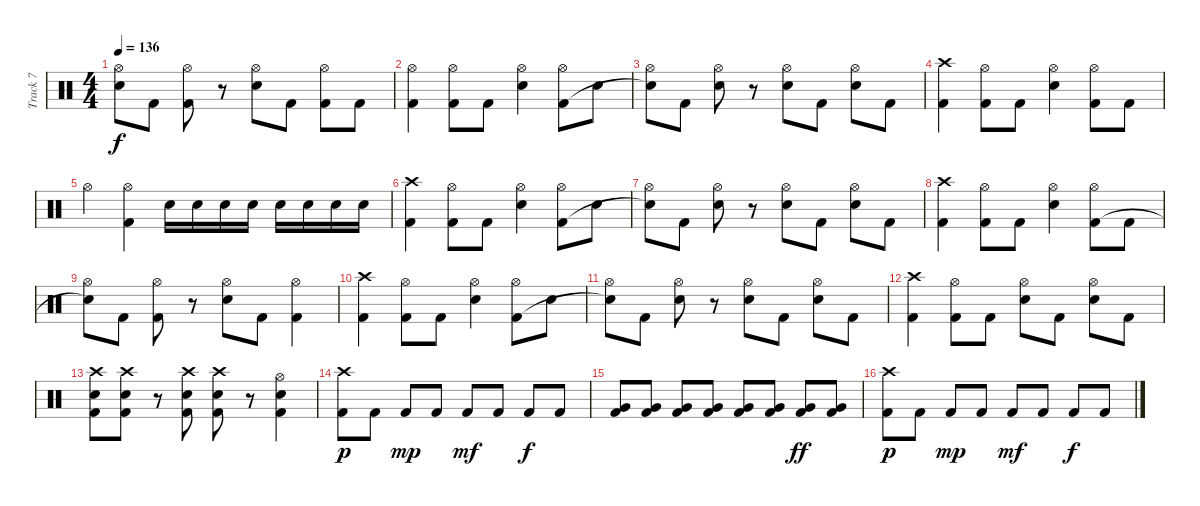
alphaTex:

\track ("Track 7" "Track 7") {instrument percussion}
\staff {score}
\articulation defaults
\ts (4 4)
\tempo 136
\clef neutral
\ks c
("Hi-Hat (open)" "Electric Snare (hit)"{t}).8{dy f} "Kick (hit) 2".8 ("Hi-Hat (open)" "Kick (hit) 2").8 r.8 ("Hi-Hat (open)" "Electric Snare (hit)").8 "Kick (hit) 2".8 ("Hi-Hat (open)" "Kick (hit) 2").8 "Kick (hit) 2".8 |
("Hi-Hat (open)" "Kick (hit) 2").4 ("Hi-Hat (open)" "Kick (hit) 2").8 "Kick (hit) 2".8 ("Hi-Hat (open)" "Electric Snare (hit)").4 ("Hi-Hat (open)" "Kick (hit) 2").8 "Electric Snare (hit)".8 |
("Hi-Hat (open)" "Electric Snare (hit)"{t}).8 "Kick (hit) 2".8 ("Hi-Hat (open)" "Electric Snare (hit)").8 r.8 ("Hi-Hat (open)" "Electric Snare (hit)").8 "Kick (hit) 2".8 ("Hi-Hat (open)" "Electric Snare (hit)").8 "Kick (hit) 2".8 |
("Crash high (hit)" "Kick (hit) 2").4 ("Hi-Hat (open)" "Kick (hit) 2").8 "Kick (hit) 2".8 ("Hi-Hat (open)" "Electric Snare (hit)").4 ("Hi-Hat (open)" "Kick (hit) 2").8 "Kick (hit) 2".8 |
"Hi-Hat (open)".4 ("Hi-Hat (open)" "Kick (hit) 2").4 "Electric Snare (hit)".16 "Electric Snare (hit)".16 "Electric Snare (hit)".16 "Electric Snare (hit)".16 "Electric Snare (hit)".16 "Electric Snare (hit)".16 "Electric Snare (hit)".16 "Electric Snare (hit)".16 |
("Crash high (hit)" "Kick (hit) 2").4 ("Hi-Hat (open)" "Kick (hit) 2").8 "Kick (hit) 2".8 ("Hi-Hat (open)" "Electric Snare (hit)").4 ("Hi-Hat (open)" "Kick (hit) 2").8 "Electric Snare (hit)".8 |
("Hi-Hat (open)" "Electric Snare (hit)"{t}).8 "Kick (hit) 2".8 ("Hi-Hat (open)" "Electric Snare (hit)").8 r.8 ("Hi-Hat (open)" "Electric Snare (hit)").8 "Kick (hit) 2".8 ("Hi-Hat (open)" "Electric Snare (hit)").8 "Kick (hit) 2".8 |
("Crash high (hit)" "Kick (hit) 2").4 ("Hi-Hat (open)" "Kick (hit) 2").8 "Kick (hit) 2".8 ("Hi-Hat (open)" "Electric Snare (hit)").4 ("Hi-Hat (open)" "Kick (hit) 2").8 "Kick (hit) 2".8 |
("Hi-Hat (open)" "Electric Snare (hit)"{t}).8 "Kick (hit) 2".8 ("Hi-Hat (open)" "Kick (hit) 2").8 r.8 ("Hi-Hat (open)" "Electric Snare (hit)").8 "Kick (hit) 2".8 ("Hi-Hat (open)" "Kick (hit) 2").4 |
("Crash high (hit)" "Kick (hit) 2").4 ("Hi-Hat (open)" "Kick (hit) 2").8 "Kick (hit) 2".8 ("Hi-Hat (open)" "Electric Snare (hit)").4 ("Hi-Hat (open)" "Kick (hit) 2").8 "Electric Snare (hit)".8 |
("Hi-Hat (open)" "Electric Snare (hit)"{t}).8 "Kick (hit) 2".8 ("Hi-Hat (open)" "Electric Snare (hit)").8 r.8 ("Hi-Hat (open)" "Electric Snare (hit)").8 "Kick (hit) 2".8 ("Hi-Hat (open)" "Electric Snare (hit)").8 "Kick (hit) 2".8 |
("Crash high (hit)" "Kick (hit) 2").4 ("Hi-Hat (open)" "Kick (hit) 2").8 "Kick (hit) 2".8 ("Hi-Hat (open)" "Electric Snare (hit)").8 "Kick (hit) 2".8 ("Hi-Hat (open)" "Electric Snare (hit)").8 "Kick (hit) 2".8 |
("Crash high (hit)" "Electric Snare (hit)" "Kick (hit) 2").8 ("Crash high (hit)" "Electric Snare (hit)" "Kick (hit) 2").8 r.8 ("Crash high (hit)" "Electric Snare (hit)" "Kick (hit) 2").8 ("Crash high (hit)" "Electric Snare (hit)" "Kick (hit) 2").8 r.8 ("Hi-Hat (open)" "Electric Snare (hit)" "Kick (hit) 2").4 |
("Crash high (hit)" "Kick (hit) 2").8{dy p} "Kick (hit) 2".8 "Kick (hit) 2".8{dy mp} "Kick (hit) 2".8 "Kick (hit) 2".8{dy mf} "Kick (hit) 2".8 "Kick (hit) 2".8{dy f} "Kick (hit) 2".8 |
("Very Low Tom (hit)" "Kick (hit) 2").8 ("Very Low Tom (hit)" "Kick (hit) 2").8 ("Very Low Tom (hit)" "Kick (hit) 2").8 ("Very Low Tom (hit)" "Kick (hit) 2").8 ("Very Low Tom (hit)" "Kick (hit) 2").8 ("Very Low Tom (hit)" "Kick (hit) 2").8 ("Very Low Tom (hit)" "Kick (hit) 2").8{dy ff} ("Very Low Tom (hit)" "Kick (hit) 2").8 |
("Crash high (hit)" "Kick (hit) 2").8{dy p} "Kick (hit) 2".8 "Kick (hit) 2".8{dy mp} "Kick (hit) 2".8 "Kick (hit) 2".8{dy mf} "Kick (hit) 2".8 "Kick (hit) 2".8{dy f} "Kick (hit) 2".8
